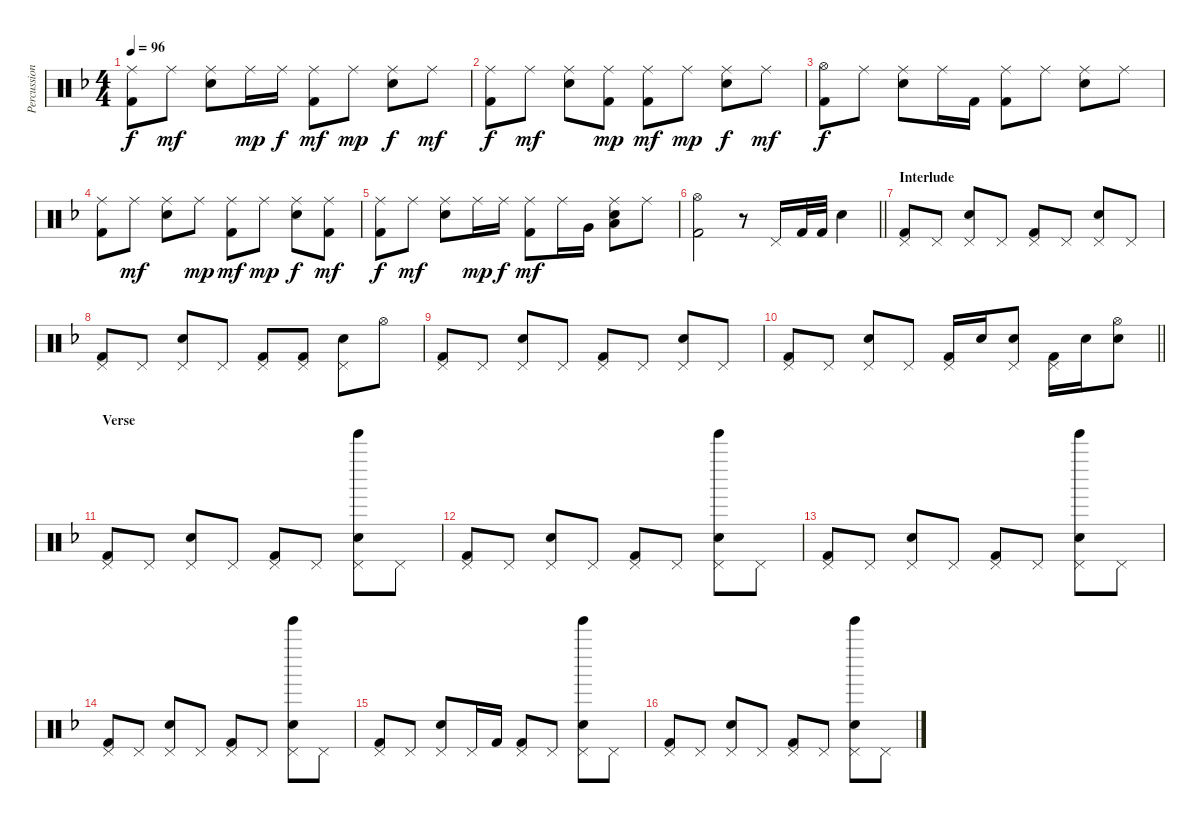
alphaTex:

\track ("Percussion" "Percussion") {instrument percussion}
\staff {score}
\articulation defaults
\ts (4 4)
\tempo 96
\clef neutral
\ks dminor
("Ride (middle)" "Kick (hit) 2").8{dy f} "Ride (middle)".8{dy mf} ("Ride (middle)" "Electric Snare (hit)").8 "Ride (middle)".16{dy mp} "Ride (middle)".16{dy f} ("Ride (middle)" "Kick (hit) 2").8{dy mf} "Ride (middle)".8{dy mp} ("Ride (middle)" "Electric Snare (hit)").8{dy f} "Ride (middle)".8{dy mf} |
("Ride (middle)" "Kick (hit) 2").8{dy f} "Ride (middle)".8{dy mf} ("Ride (middle)" "Electric Snare (hit)").8 ("Ride (middle)" "Kick (hit) 2").8{dy mp} ("Ride (middle)" "Kick (hit) 2").8{dy mf} "Ride (middle)".8{dy mp} ("Ride (middle)" "Electric Snare (hit)").8{dy f} "Ride (middle)".8{dy mf} |
("Hi-Hat (open)" "Kick (hit) 2").8{dy f} "Ride (middle)".8 ("Ride (middle)" "Electric Snare (hit)").8 "Ride (middle)".16 "Kick (hit) 2".16 ("Ride (middle)" "Kick (hit) 2").8 "Ride (middle)".8 ("Ride (middle)" "Electric Snare (hit)").8 "Ride (middle)".8 |
("Ride (middle)" "Kick (hit) 2").8 "Ride (middle)".8{dy mf} ("Ride (middle)" "Electric Snare (hit)").8 "Ride (middle)".8{dy mp} ("Ride (middle)" "Kick (hit) 2").8{dy mf} "Ride (middle)".8{dy mp} ("Ride (middle)" "Electric Snare (hit)").8{dy f} ("Ride (middle)" "Kick (hit) 2").8{dy mf} |
("Ride (middle)" "Kick (hit) 2").8{dy f} "Ride (middle)".8{dy mf} ("Ride (middle)" "Electric Snare (hit)").8 "Ride (middle)".16{dy mp} "Ride (middle)".16{dy f} ("Ride (middle)" "Kick (hit) 2").8{dy mf} "Ride (middle)".16 "Very Low Tom (hit)".16 ("Ride (middle)" "Electric Snare (hit)" "Low Floor Tom (hit)").8 "Ride (middle)".8 |
\barLineRight lightlight
("Hi-Hat (open)" "Kick (hit) 2").2 r.8 "Pedal Hi-Hat (hit)".16 "Kick (hit) 2".32 "Kick (hit) 2".32 "Electric Snare (hit)".4 |
\section ("" "Interlude")
("Pedal Hi-Hat (hit)" "Kick (hit) 2").8 "Pedal Hi-Hat (hit)".8 ("Pedal Hi-Hat (hit)" "Electric Snare (hit)").8 "Pedal Hi-Hat (hit)".8 ("Pedal Hi-Hat (hit)" "Kick (hit) 2").8 "Pedal Hi-Hat (hit)".8 ("Pedal Hi-Hat (hit)" "Electric Snare (hit)").8 "Pedal Hi-Hat (hit)".8 |
("Pedal Hi-Hat (hit)" "Kick (hit) 2").8 "Pedal Hi-Hat (hit)".8 ("Pedal Hi-Hat (hit)" "Electric Snare (hit)").8 "Pedal Hi-Hat (hit)".8 ("Pedal Hi-Hat (hit)" "Kick (hit) 2").8 ("Pedal Hi-Hat (hit)" "Kick (hit) 2").8 ("Pedal Hi-Hat (hit)" "Electric Snare (hit)").8 "Hi-Hat (open)".8 |
("Pedal Hi-Hat (hit)" "Kick (hit) 2").8 "Pedal Hi-Hat (hit)".8 ("Pedal Hi-Hat (hit)" "Electric Snare (hit)").8 "Pedal Hi-Hat (hit)".8 ("Pedal Hi-Hat (hit)" "Kick (hit) 2").8 "Pedal Hi-Hat (hit)".8 ("Pedal Hi-Hat (hit)" "Electric Snare (hit)").8 "Pedal Hi-Hat (hit)".8 |
\barLineRight lightlight
("Pedal Hi-Hat (hit)" "Kick (hit) 2").8 "Pedal Hi-Hat (hit)".8 ("Pedal Hi-Hat (hit)" "Electric Snare (hit)").8 "Pedal Hi-Hat (hit)".8 ("Pedal Hi-Hat (hit)" "Kick (hit) 2").16 "Electric Snare (hit)".16 ("Pedal Hi-Hat (hit)" "Electric Snare (hit)").8 ("Pedal Hi-Hat (hit)" "Kick (hit) 2").16 "Electric Snare (hit)".16 ("Hi-Hat (open)" "Electric Snare (hit)").8 |
\section ("" "Verse")
("Pedal Hi-Hat (hit)" "Kick (hit) 2").8 "Pedal Hi-Hat (hit)".8 ("Pedal Hi-Hat (hit)" "Electric Snare (hit)").8 "Pedal Hi-Hat (hit)".8 ("Pedal Hi-Hat (hit)" "Kick (hit) 2").8 "Pedal Hi-Hat (hit)".8 ("Pedal Hi-Hat (hit)" "Tinkle Bell (hit)" "Electric Snare (hit)").8 "Pedal Hi-Hat (hit)".8 |
("Pedal Hi-Hat (hit)" "Kick (hit) 2").8 "Pedal Hi-Hat (hit)".8 ("Pedal Hi-Hat (hit)" "Electric Snare (hit)").8 "Pedal Hi-Hat (hit)".8 ("Pedal Hi-Hat (hit)" "Kick (hit) 2").8 "Pedal Hi-Hat (hit)".8 ("Pedal Hi-Hat (hit)" "Tinkle Bell (hit)" "Electric Snare (hit)").8 "Pedal Hi-Hat (hit)".8 |
("Pedal Hi-Hat (hit)" "Kick (hit) 2").8 "Pedal Hi-Hat (hit)".8 ("Pedal Hi-Hat (hit)" "Electric Snare (hit)").8 "Pedal Hi-Hat (hit)".8 ("Pedal Hi-Hat (hit)" "Kick (hit) 2").8 "Pedal Hi-Hat (hit)".8 ("Pedal Hi-Hat (hit)" "Tinkle Bell (hit)" "Electric Snare (hit)").8 "Pedal Hi-Hat (hit)".8 |
("Pedal Hi-Hat (hit)" "Kick (hit) 2").8 "Pedal Hi-Hat (hit)".8 ("Pedal Hi-Hat (hit)" "Electric Snare (hit)").8 "Pedal Hi-Hat (hit)".8 ("Pedal Hi-Hat (hit)" "Kick (hit) 2").8 "Pedal Hi-Hat (hit)".8 ("Pedal Hi-Hat (hit)" "Tinkle Bell (hit)" "Electric Snare (hit)").8 "Pedal Hi-Hat (hit)".8 |
("Pedal Hi-Hat (hit)" "Kick (hit) 2").8 "Pedal Hi-Hat (hit)".8 ("Pedal Hi-Hat (hit)" "Electric Snare (hit)").8 "Pedal Hi-Hat (hit)".16 "Kick (hit) 2".16 ("Pedal Hi-Hat (hit)" "Kick (hit) 2").8 "Pedal Hi-Hat (hit)".8 ("Pedal Hi-Hat (hit)" "Tinkle Bell (hit)" "Electric Snare (hit)").8 "Pedal Hi-Hat (hit)".8 |
("Pedal Hi-Hat (hit)" "Kick (hit) 2").8 "Pedal Hi-Hat (hit)".8 ("Pedal Hi-Hat (hit)" "Electric Snare (hit)").8 "Pedal Hi-Hat (hit)".8 ("Pedal Hi-Hat (hit)" "Kick (hit) 2").8 "Pedal Hi-Hat (hit)".8 ("Pedal Hi-Hat (hit)" "Tinkle Bell (hit)" "Electric Snare (hit)").8 "Pedal Hi-Hat (hit)".8
